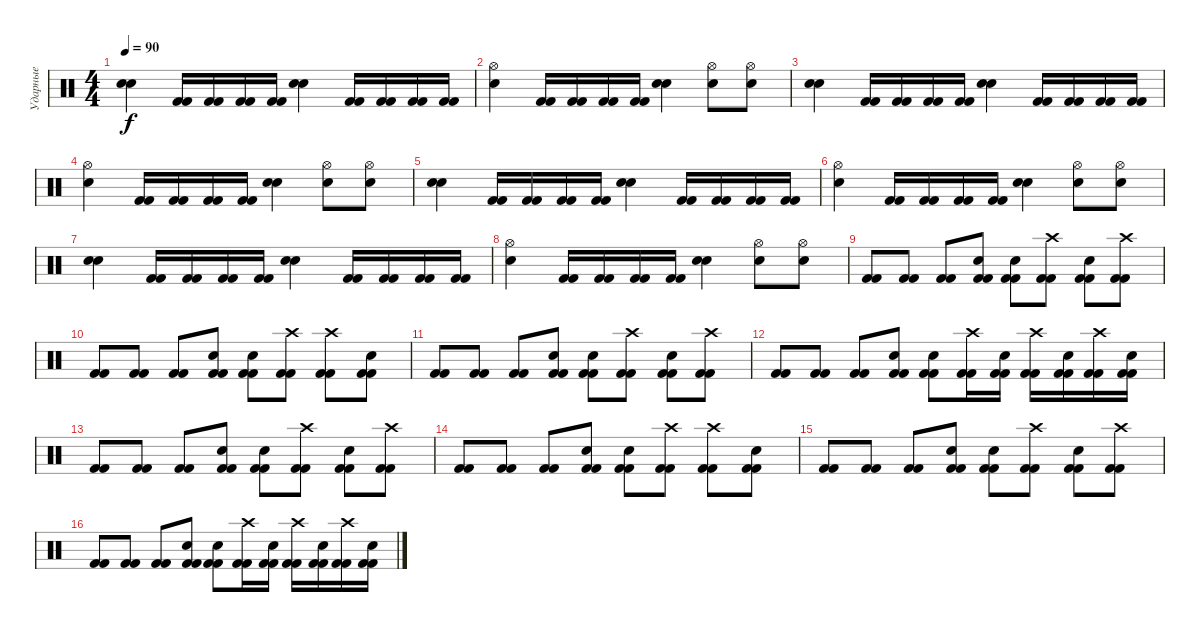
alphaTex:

\track ("Ударные" "Ударные") {instrument percussion}
\staff {score}
\articulation defaults
\ts (4 4)
\tempo 90
\clef neutral
\ks c
("Electric Snare (hit)" "Electric Snare (hit)").4{dy f} ("Kick (hit) 2" "Kick (hit) 2").16 ("Kick (hit) 2" "Kick (hit) 2").16 ("Kick (hit) 2" "Kick (hit) 2").16 ("Kick (hit) 2" "Kick (hit) 2").16 ("Electric Snare (hit)" "Electric Snare (hit)").4 ("Kick (hit) 2" "Kick (hit) 2").16 ("Kick (hit) 2" "Kick (hit) 2").16 ("Kick (hit) 2" "Kick (hit) 2").16 ("Kick (hit) 2" "Kick (hit) 2").16 |
("Hi-Hat (open)" "Electric Snare (hit)").4 ("Kick (hit) 2" "Kick (hit) 2").16 ("Kick (hit) 2" "Kick (hit) 2").16 ("Kick (hit) 2" "Kick (hit) 2").16 ("Kick (hit) 2" "Kick (hit) 2").16 ("Electric Snare (hit)" "Electric Snare (hit)").4 ("Electric Snare (hit)" "Hi-Hat (open)").8 ("Electric Snare (hit)" "Hi-Hat (open)").8 |
("Electric Snare (hit)" "Electric Snare (hit)").4 ("Kick (hit) 2" "Kick (hit) 2").16 ("Kick (hit) 2" "Kick (hit) 2").16 ("Kick (hit) 2" "Kick (hit) 2").16 ("Kick (hit) 2" "Kick (hit) 2").16 ("Electric Snare (hit)" "Electric Snare (hit)").4 ("Kick (hit) 2" "Kick (hit) 2").16 ("Kick (hit) 2" "Kick (hit) 2").16 ("Kick (hit) 2" "Kick (hit) 2").16 ("Kick (hit) 2" "Kick (hit) 2").16 |
("Hi-Hat (open)" "Electric Snare (hit)").4 ("Kick (hit) 2" "Kick (hit) 2").16 ("Kick (hit) 2" "Kick (hit) 2").16 ("Kick (hit) 2" "Kick (hit) 2").16 ("Kick (hit) 2" "Kick (hit) 2").16 ("Electric Snare (hit)" "Electric Snare (hit)").4 ("Electric Snare (hit)" "Hi-Hat (open)").8 ("Electric Snare (hit)" "Hi-Hat (open)").8 |
("Electric Snare (hit)" "Electric Snare (hit)").4 ("Kick (hit) 2" "Kick (hit) 2").16 ("Kick (hit) 2" "Kick (hit) 2").16 ("Kick (hit) 2" "Kick (hit) 2").16 ("Kick (hit) 2" "Kick (hit) 2").16 ("Electric Snare (hit)" "Electric Snare (hit)").4 ("Kick (hit) 2" "Kick (hit) 2").16 ("Kick (hit) 2" "Kick (hit) 2").16 ("Kick (hit) 2" "Kick (hit) 2").16 ("Kick (hit) 2" "Kick (hit) 2").16 |
("Hi-Hat (open)" "Electric Snare (hit)").4 ("Kick (hit) 2" "Kick (hit) 2").16 ("Kick (hit) 2" "Kick (hit) 2").16 ("Kick (hit) 2" "Kick (hit) 2").16 ("Kick (hit) 2" "Kick (hit) 2").16 ("Electric Snare (hit)" "Electric Snare (hit)").4 ("Electric Snare (hit)" "Hi-Hat (open)").8 ("Electric Snare (hit)" "Hi-Hat (open)").8 |
("Electric Snare (hit)" "Electric Snare (hit)").4 ("Kick (hit) 2" "Kick (hit) 2").16 ("Kick (hit) 2" "Kick (hit) 2").16 ("Kick (hit) 2" "Kick (hit) 2").16 ("Kick (hit) 2" "Kick (hit) 2").16 ("Electric Snare (hit)" "Electric Snare (hit)").4 ("Kick (hit) 2" "Kick (hit) 2").16 ("Kick (hit) 2" "Kick (hit) 2").16 ("Kick (hit) 2" "Kick (hit) 2").16 ("Kick (hit) 2" "Kick (hit) 2").16 |
("Hi-Hat (open)" "Electric Snare (hit)").4 ("Kick (hit) 2" "Kick (hit) 2").16 ("Kick (hit) 2" "Kick (hit) 2").16 ("Kick (hit) 2" "Kick (hit) 2").16 ("Kick (hit) 2" "Kick (hit) 2").16 ("Electric Snare (hit)" "Electric Snare (hit)").4 ("Electric Snare (hit)" "Hi-Hat (open)").8 ("Electric Snare (hit)" "Hi-Hat (open)").8 |
("Kick (hit) 2" "Kick (hit) 2").8 ("Kick (hit) 2" "Kick (hit) 2").8 ("Kick (hit) 2" "Kick (hit) 2").8 ("Electric Snare (hit)" "Kick (hit) 2" "Kick (hit) 2").8 ("Electric Snare (hit)" "Kick (hit) 2" "Kick (hit) 2").8 ("Crash high (hit)" "Kick (hit) 2" "Kick (hit) 2").8 ("Electric Snare (hit)" "Kick (hit) 2" "Kick (hit) 2").8 ("Crash high (hit)" "Kick (hit) 2" "Kick (hit) 2").8 |
("Kick (hit) 2" "Kick (hit) 2").8 ("Kick (hit) 2" "Kick (hit) 2").8 ("Kick (hit) 2" "Kick (hit) 2").8 ("Electric Snare (hit)" "Kick (hit) 2" "Kick (hit) 2").8 ("Electric Snare (hit)" "Kick (hit) 2" "Kick (hit) 2").8 ("Crash high (hit)" "Kick (hit) 2" "Kick (hit) 2").8 ("Crash high (hit)" "Kick (hit) 2" "Kick (hit) 2").8 ("Electric Snare (hit)" "Kick (hit) 2" "Kick (hit) 2").8 |
("Kick (hit) 2" "Kick (hit) 2").8 ("Kick (hit) 2" "Kick (hit) 2").8 ("Kick (hit) 2" "Kick (hit) 2").8 ("Electric Snare (hit)" "Kick (hit) 2" "Kick (hit) 2").8 ("Electric Snare (hit)" "Kick (hit) 2" "Kick (hit) 2").8 ("Crash high (hit)" "Kick (hit) 2" "Kick (hit) 2").8 ("Electric Snare (hit)" "Kick (hit) 2" "Kick (hit) 2").8 ("Crash high (hit)" "Kick (hit) 2" "Kick (hit) 2").8 |
("Kick (hit) 2" "Kick (hit) 2").8 ("Kick (hit) 2" "Kick (hit) 2").8 ("Kick (hit) 2" "Kick (hit) 2").8 ("Electric Snare (hit)" "Kick (hit) 2" "Kick (hit) 2").8 ("Electric Snare (hit)" "Kick (hit) 2" "Kick (hit) 2").8 ("Crash high (hit)" "Kick (hit) 2" "Kick (hit) 2").16 ("Electric Snare (hit)" "Kick (hit) 2" "Kick (hit) 2").16 ("Crash high (hit)" "Kick (hit) 2" "Kick (hit) 2").16 ("Electric Snare (hit)" "Kick (hit) 2" "Kick (hit) 2").16 ("Crash high (hit)" "Kick (hit) 2" "Kick (hit) 2").16 ("Electric Snare (hit)" "Kick (hit) 2" "Kick (hit) 2").16 |
("Kick (hit) 2" "Kick (hit) 2").8 ("Kick (hit) 2" "Kick (hit) 2").8 ("Kick (hit) 2" "Kick (hit) 2").8 ("Electric Snare (hit)" "Kick (hit) 2" "Kick (hit) 2").8 ("Electric Snare (hit)" "Kick (hit) 2" "Kick (hit) 2").8 ("Crash high (hit)" "Kick (hit) 2" "Kick (hit) 2").8 ("Electric Snare (hit)" "Kick (hit) 2" "Kick (hit) 2").8 ("Crash high (hit)" "Kick (hit) 2" "Kick (hit) 2").8 |
("Kick (hit) 2" "Kick (hit) 2").8 ("Kick (hit) 2" "Kick (hit) 2").8 ("Kick (hit) 2" "Kick (hit) 2").8 ("Electric Snare (hit)" "Kick (hit) 2" "Kick (hit) 2").8 ("Electric Snare (hit)" "Kick (hit) 2" "Kick (hit) 2").8 ("Crash high (hit)" "Kick (hit) 2" "Kick (hit) 2").8 ("Crash high (hit)" "Kick (hit) 2" "Kick (hit) 2").8 ("Electric Snare (hit)" "Kick (hit) 2" "Kick (hit) 2").8 |
("Kick (hit) 2" "Kick (hit) 2").8 ("Kick (hit) 2" "Kick (hit) 2").8 ("Kick (hit) 2" "Kick (hit) 2").8 ("Electric Snare (hit)" "Kick (hit) 2" "Kick (hit) 2").8 ("Electric Snare (hit)" "Kick (hit) 2" "Kick (hit) 2").8 ("Crash high (hit)" "Kick (hit) 2" "Kick (hit) 2").8 ("Electric Snare (hit)" "Kick (hit) 2" "Kick (hit) 2").8 ("Crash high (hit)" "Kick (hit) 2" "Kick (hit) 2").8 |
("Kick (hit) 2" "Kick (hit) 2").8 ("Kick (hit) 2" "Kick (hit) 2").8 ("Kick (hit) 2" "Kick (hit) 2").8 ("Electric Snare (hit)" "Kick (hit) 2" "Kick (hit) 2").8 ("Electric Snare (hit)" "Kick (hit) 2" "Kick (hit) 2").8 ("Crash high (hit)" "Kick (hit) 2" "Kick (hit) 2").16 ("Electric Snare (hit)" "Kick (hit) 2" "Kick (hit) 2").16 ("Crash high (hit)" "Kick (hit) 2" "Kick (hit) 2").16 ("Electric Snare (hit)" "Kick (hit) 2" "Kick (hit) 2").16 ("Crash high (hit)" "Kick (hit) 2" "Kick (hit) 2").16 ("Electric Snare (hit)" "Kick (hit) 2" "Kick (hit) 2").16
